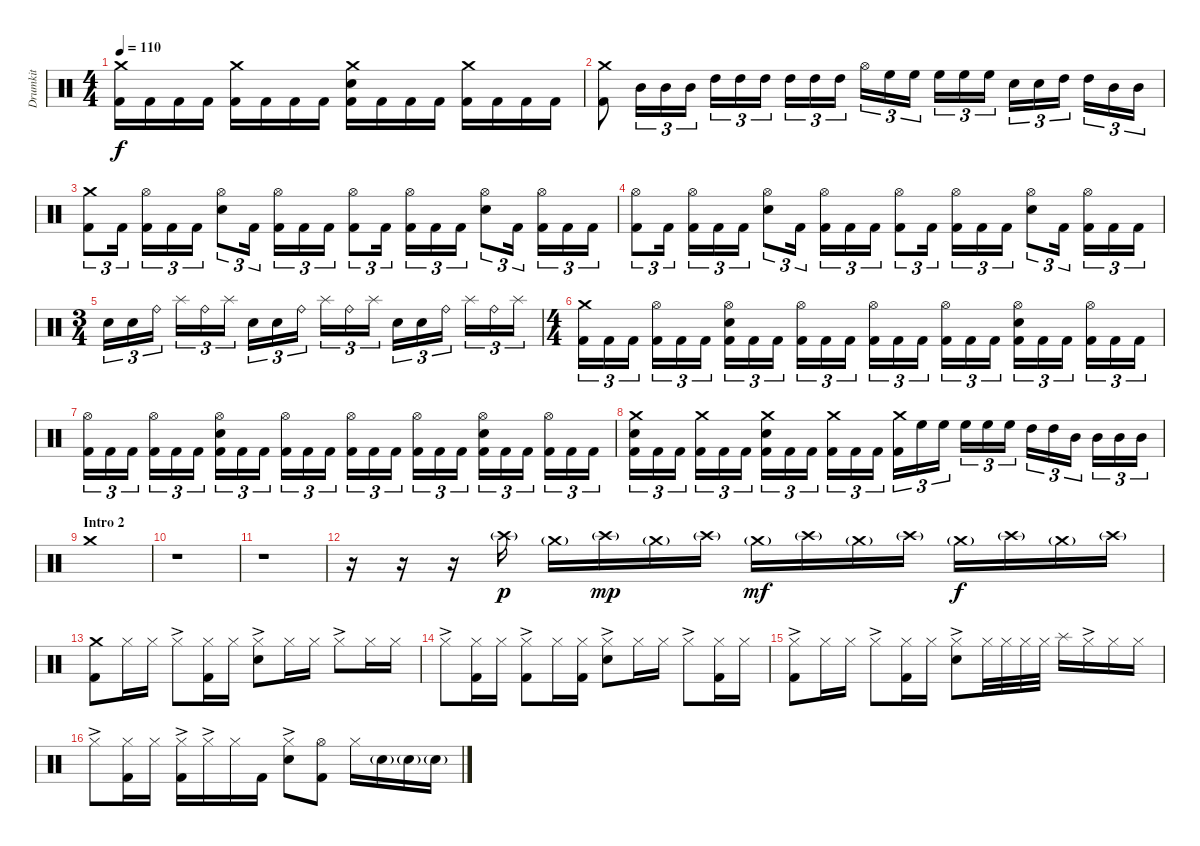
\track ("Drumkit" "Drumkit") {instrument percussion}
\staff {score}
\articulation defaults
\ts (4 4)
\tempo 110
\clef neutral
\ks c
("Crash medium (hit)" "Kick (hit) 2").16{dy f} "Kick (hit) 2".16 "Kick (hit) 2".16 "Kick (hit) 2".16 ("Crash medium (hit)" "Kick (hit) 2").16 "Kick (hit) 2".16 "Kick (hit) 2".16 "Kick (hit) 2".16 ("Crash medium (hit)" "Snare (hit) 2" "Kick (hit) 2").16 "Kick (hit) 2".16 "Kick (hit) 2".16 "Kick (hit) 2".16 ("Crash medium (hit)" "Kick (hit) 2").16 "Kick (hit) 2".16 "Kick (hit) 2".16 "Kick (hit) 2".16 |
("Crash medium (hit)" "Kick (hit) 2").8 "Mid Tom (hit)".16{tu (3 2)} "Mid Tom (hit)".16{tu (3 2)} "Mid Tom (hit)".16{tu (3 2)} "High Tom (hit)".16{tu (3 2)} "High Tom (hit)".16{tu (3 2)} "High Tom (hit)".16{tu (3 2)} "High Tom (hit)".16{tu (3 2)} "High Tom (hit)".16{tu (3 2)} "High Tom (hit)".16{tu (3 2)} "Hi-Hat (open)".16{tu (3 2)} "High Floor Tom (hit)".16{tu (3 2)} "High Floor Tom (hit)".16{tu (3 2)} "High Floor Tom (hit)".16{tu (3 2)} "High Floor Tom (hit)".16{tu (3 2)} "High Floor Tom (hit)".16{tu (3 2)} "Snare (hit) 2".16{tu (3 2)} "Snare (hit) 2".16{tu (3 2)} "High Tom (hit)".16{tu (3 2)} "High Tom (hit)".16{tu (3 2)} "Mid Tom (hit)".16{tu (3 2)} "Mid Tom (hit)".16{tu (3 2)} |
("Crash medium (hit)" "Kick (hit) 2").8{tu (3 2)} "Kick (hit) 2".16{tu (3 2)} ("Hi-Hat (open)" "Kick (hit) 2").16{tu (3 2)} "Kick (hit) 2".16{tu (3 2)} "Kick (hit) 2".16{tu (3 2)} ("Hi-Hat (open)" "Snare (hit) 2").8{tu (3 2)} "Kick (hit) 2".16{tu (3 2)} ("Hi-Hat (open)" "Kick (hit) 2").16{tu (3 2)} "Kick (hit) 2".16{tu (3 2)} "Kick (hit) 2".16{tu (3 2)} ("Hi-Hat (open)" "Kick (hit) 2").8{tu (3 2)} "Kick (hit) 2".16{tu (3 2)} ("Hi-Hat (open)" "Kick (hit) 2").16{tu (3 2)} "Kick (hit) 2".16{tu (3 2)} "Kick (hit) 2".16{tu (3 2)} ("Hi-Hat (open)" "Snare (hit) 2").8{tu (3 2)} "Kick (hit) 2".16{tu (3 2)} ("Hi-Hat (open)" "Kick (hit) 2").16{tu (3 2)} "Kick (hit) 2".16{tu (3 2)} "Kick (hit) 2".16{tu (3 2)} |
("Hi-Hat (open)" "Kick (hit) 2").8{tu (3 2)} "Kick (hit) 2".16{tu (3 2)} ("Hi-Hat (open)" "Kick (hit) 2").16{tu (3 2)} "Kick (hit) 2".16{tu (3 2)} "Kick (hit) 2".16{tu (3 2)} ("Hi-Hat (open)" "Snare (hit) 2").8{tu (3 2)} "Kick (hit) 2".16{tu (3 2)} ("Hi-Hat (open)" "Kick (hit) 2").16{tu (3 2)} "Kick (hit) 2".16{tu (3 2)} "Kick (hit) 2".16{tu (3 2)} ("Hi-Hat (open)" "Kick (hit) 2").8{tu (3 2)} "Kick (hit) 2".16{tu (3 2)} ("Hi-Hat (open)" "Kick (hit) 2").16{tu (3 2)} "Kick (hit) 2".16{tu (3 2)} "Kick (hit) 2".16{tu (3 2)} ("Hi-Hat (open)" "Snare (hit) 2").8{tu (3 2)} "Kick (hit) 2".16{tu (3 2)} ("Hi-Hat (open)" "Kick (hit) 2").16{tu (3 2)} "Kick (hit) 2".16{tu (3 2)} "Kick (hit) 2".16{tu (3 2)} |
\ts (3 4)
"Snare (hit) 2".16{tu (3 2)} "Snare (hit) 2".16{tu (3 2)} "Ride (bell)".16{tu (3 2)} "Splash (hit)".16{tu (3 2)} "Ride (bell)".16{tu (3 2)} "Splash (hit)".16{tu (3 2)} "Snare (hit) 2".16{tu (3 2)} "Snare (hit) 2".16{tu (3 2)} "Ride (bell)".16{tu (3 2)} "Splash (hit)".16{tu (3 2)} "Ride (bell)".16{tu (3 2)} "Splash (hit)".16{tu (3 2)} "Snare (hit) 2".16{tu (3 2)} "Snare (hit) 2".16{tu (3 2)} "Ride (bell)".16{tu (3 2)} "Splash (hit)".16{tu (3 2)} "Ride (bell)".16{tu (3 2)} "Splash (hit)".16{tu (3 2)} |
\ts (4 4)
("Crash medium (hit)" "Kick (hit) 2").16{tu (3 2)} "Kick (hit) 2".16{tu (3 2)} "Kick (hit) 2".16{tu (3 2)} ("Hi-Hat (open)" "Kick (hit) 2").16{tu (3 2)} "Kick (hit) 2".16{tu (3 2)} "Kick (hit) 2".16{tu (3 2)} ("Hi-Hat (open)" "Snare (hit) 2" "Kick (hit) 2").16{tu (3 2)} "Kick (hit) 2".16{tu (3 2)} "Kick (hit) 2".16{tu (3 2)} ("Hi-Hat (open)" "Kick (hit) 2").16{tu (3 2)} "Kick (hit) 2".16{tu (3 2)} "Kick (hit) 2".16{tu (3 2)} ("Hi-Hat (open)" "Kick (hit) 2").16{tu (3 2)} "Kick (hit) 2".16{tu (3 2)} "Kick (hit) 2".16{tu (3 2)} ("Hi-Hat (open)" "Kick (hit) 2").16{tu (3 2)} "Kick (hit) 2".16{tu (3 2)} "Kick (hit) 2".16{tu (3 2)} ("Hi-Hat (open)" "Snare (hit) 2" "Kick (hit) 2").16{tu (3 2)} "Kick (hit) 2".16{tu (3 2)} "Kick (hit) 2".16{tu (3 2)} ("Hi-Hat (open)" "Kick (hit) 2").16{tu (3 2)} "Kick (hit) 2".16{tu (3 2)} "Kick (hit) 2".16{tu (3 2)} |
("Hi-Hat (open)" "Kick (hit) 2").16{tu (3 2)} "Kick (hit) 2".16{tu (3 2)} "Kick (hit) 2".16{tu (3 2)} ("Hi-Hat (open)" "Kick (hit) 2").16{tu (3 2)} "Kick (hit) 2".16{tu (3 2)} "Kick (hit) 2".16{tu (3 2)} ("Hi-Hat (open)" "Snare (hit) 2" "Kick (hit) 2").16{tu (3 2)} "Kick (hit) 2".16{tu (3 2)} "Kick (hit) 2".16{tu (3 2)} ("Hi-Hat (open)" "Kick (hit) 2").16{tu (3 2)} "Kick (hit) 2".16{tu (3 2)} "Kick (hit) 2".16{tu (3 2)} ("Hi-Hat (open)" "Kick (hit) 2").16{tu (3 2)} "Kick (hit) 2".16{tu (3 2)} "Kick (hit) 2".16{tu (3 2)} ("Hi-Hat (open)" "Kick (hit) 2").16{tu (3 2)} "Kick (hit) 2".16{tu (3 2)} "Kick (hit) 2".16{tu (3 2)} ("Hi-Hat (open)" "Snare (hit) 2" "Kick (hit) 2").16{tu (3 2)} "Kick (hit) 2".16{tu (3 2)} "Kick (hit) 2".16{tu (3 2)} ("Hi-Hat (open)" "Kick (hit) 2").16{tu (3 2)} "Kick (hit) 2".16{tu (3 2)} "Kick (hit) 2".16{tu (3 2)} |
("Crash medium (hit)" "Snare (hit) 2" "Kick (hit) 2").16{tu (3 2)} "Kick (hit) 2".16{tu (3 2)} "Kick (hit) 2".16{tu (3 2)} ("Crash medium (hit)" "Kick (hit) 2").16{tu (3 2)} "Kick (hit) 2".16{tu (3 2)} "Kick (hit) 2".16{tu (3 2)} ("Crash medium (hit)" "Snare (hit) 2" "Kick (hit) 2").16{tu (3 2)} "Kick (hit) 2".16{tu (3 2)} "Kick (hit) 2".16{tu (3 2)} ("Crash medium (hit)" "Kick (hit) 2").16{tu (3 2)} "Kick (hit) 2".16{tu (3 2)} "Kick (hit) 2".16{tu (3 2)} ("Crash medium (hit)" "Kick (hit) 2").16{tu (3 2)} "High Floor Tom (hit)".16{tu (3 2)} "High Floor Tom (hit)".16{tu (3 2)} "High Floor Tom (hit)".16{tu (3 2)} "High Floor Tom (hit)".16{tu (3 2)} "High Floor Tom (hit)".16{tu (3 2)} "High Tom (hit)".16{tu (3 2)} "High Tom (hit)".16{tu (3 2)} "Mid Tom (hit)".16{tu (3 2)} "Mid Tom (hit)".16{tu (3 2)} "Mid Tom (hit)".16{tu (3 2)} "Mid Tom (hit)".16{tu (3 2)} |
\section ("" "Intro 2")
"Crash medium (hit)".1 |
r.1 |
r.1 |
r.16 r.16 r.16 "Crash high (hit)"{g}.16{dy p} "Crash medium (hit)"{g}.16 "Crash high (hit)"{g}.16{dy mp} "Crash medium (hit)"{g}.16 "Crash high (hit)"{g}.16 "Crash medium (hit)"{g}.16{dy mf} "Crash high (hit)"{g}.16 "Crash medium (hit)"{g}.16 "Crash high (hit)"{g}.16 "Crash medium (hit)"{g}.16{dy f} "Crash high (hit)"{g}.16 "Crash medium (hit)"{g}.16 "Crash high (hit)"{g}.16 |
("Crash medium (hit)" "Kick (hit) 2").8 "Hi-Hat (closed)".16 "Hi-Hat (closed)".16 "Hi-Hat (closed)"{ac}.8 ("Hi-Hat (closed)" "Kick (hit) 2").16 "Hi-Hat (closed)".16 ("Hi-Hat (closed)"{ac} "Snare (hit) 2").8 "Hi-Hat (closed)".16 "Hi-Hat (closed)".16 "Hi-Hat (closed)"{ac}.8 "Hi-Hat (closed)".16 "Hi-Hat (closed)".16 |
"Hi-Hat (closed)"{ac}.8 ("Hi-Hat (closed)" "Kick (hit) 2").16 "Hi-Hat (closed)".16 ("Hi-Hat (closed)"{ac} "Kick (hit) 2").8 "Hi-Hat (closed)".16 ("Hi-Hat (closed)" "Kick (hit) 2").16 ("Hi-Hat (closed)"{ac} "Snare (hit) 2").8 "Hi-Hat (closed)".16 "Hi-Hat (closed)".16 "Hi-Hat (closed)"{ac}.8 ("Hi-Hat (closed)" "Kick (hit) 2").16 "Hi-Hat (closed)".16 |
("Hi-Hat (closed)"{ac} "Kick (hit) 2").8 "Hi-Hat (closed)".16 "Hi-Hat (closed)".16 "Hi-Hat (closed)"{ac}.8 ("Hi-Hat (closed)" "Kick (hit) 2").16 "Hi-Hat (closed)".16 ("Hi-Hat (closed)"{ac} "Snare (hit) 2").8 "Hi-Hat (closed)".32 "Hi-Hat (closed)".32 "Hi-Hat (closed)".32 "Hi-Hat (closed)".32 "Splash (hit)".16 "Hi-Hat (closed)"{ac}.16 "Hi-Hat (closed)".16 "Hi-Hat (closed)".16 |
"Hi-Hat (closed)"{ac}.8 ("Hi-Hat (closed)" "Kick (hit) 2").16 "Hi-Hat (closed)".16 ("Hi-Hat (closed)"{ac} "Kick (hit) 2").16 "Hi-Hat (closed)"{ac}.16 "Hi-Hat (closed)".16 "Kick (hit) 2".16 ("Hi-Hat (closed)"{ac} "Snare (hit) 2").8 ("Hi-Hat (open)" "Kick (hit) 2").8 "Hi-Hat (closed)".16 "Snare (hit) 2"{g}.16 "Snare (hit) 2"{g}.16 "Snare (hit) 2"{g}.16
